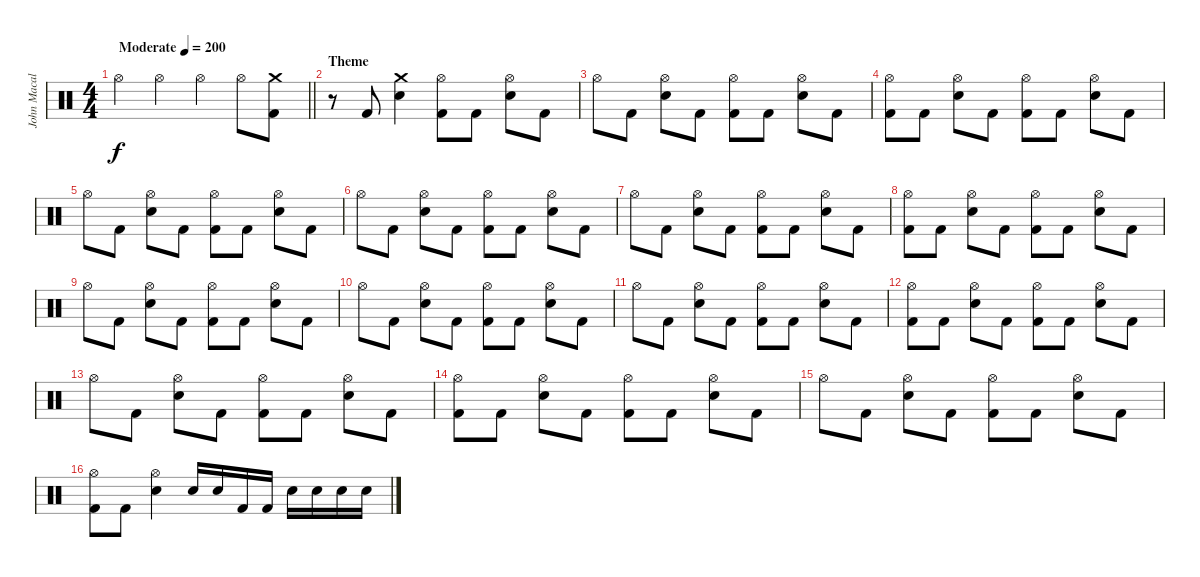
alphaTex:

\track ("John Macaluso" "John Macal") {instrument percussion}
\staff {score}
\articulation defaults
\ts (4 4)
\tempo (200 "Moderate")
\clef neutral
\barLineRight lightlight
\ks c "Hi-Hat (open)".4{dy f} "Hi-Hat (open)".4 "Hi-Hat (open)".4 "Hi-Hat (open)".8
("Crash medium (hit)" "Kick (hit) 2").8 |
\section ("" "Theme")
r.8 "Kick (hit) 2".8 ("Crash medium (hit)" "Snare (hit) 2").4 ("Hi-Hat (open)" "Kick (hit) 2").8 "Kick (hit) 2".8 ("Hi-Hat (open)" "Snare (hit) 2").8 "Kick (hit) 2".8 |
"Hi-Hat (open)".8 "Kick (hit) 2".8 ("Hi-Hat (open)" "Snare (hit) 2").8 "Kick (hit) 2".8 ("Hi-Hat (open)" "Kick (hit) 2").8 "Kick (hit) 2".8 ("Hi-Hat (open)" "Snare (hit) 2").8 "Kick (hit) 2".8 |
("Hi-Hat (open)" "Kick (hit) 2").8 "Kick (hit) 2".8 ("Hi-Hat (open)" "Snare (hit) 2").8 "Kick (hit) 2".8 ("Hi-Hat (open)" "Kick (hit) 2").8 "Kick (hit) 2".8 ("Hi-Hat (open)" "Snare (hit) 2").8 "Kick (hit) 2".8 |
"Hi-Hat (open)".8 "Kick (hit) 2".8 ("Hi-Hat (open)" "Snare (hit) 2").8 "Kick (hit) 2".8 ("Hi-Hat (open)" "Kick (hit) 2").8 "Kick (hit) 2".8 ("Hi-Hat (open)" "Snare (hit) 2").8 "Kick (hit) 2".8 |
"Hi-Hat (open)".8 "Kick (hit) 2".8 ("Hi-Hat (open)" "Snare (hit) 2").8 "Kick (hit) 2".8 ("Hi-Hat (open)" "Kick (hit) 2").8 "Kick (hit) 2".8 ("Hi-Hat (open)" "Snare (hit) 2").8 "Kick (hit) 2".8 |
"Hi-Hat (open)".8 "Kick (hit) 2".8 ("Hi-Hat (open)" "Snare (hit) 2").8 "Kick (hit) 2".8 ("Hi-Hat (open)" "Kick (hit) 2").8 "Kick (hit) 2".8 ("Hi-Hat (open)" "Snare (hit) 2").8 "Kick (hit) 2".8 |
("Hi-Hat (open)" "Kick (hit) 2").8 "Kick (hit) 2".8 ("Hi-Hat (open)" "Snare (hit) 2").8 "Kick (hit) 2".8 ("Hi-Hat (open)" "Kick (hit) 2").8 "Kick (hit) 2".8 ("Hi-Hat (open)" "Snare (hit) 2").8 "Kick (hit) 2".8 |
"Hi-Hat (open)".8 "Kick (hit) 2".8 ("Hi-Hat (open)" "Snare (hit) 2").8 "Kick (hit) 2".8 ("Hi-Hat (open)" "Kick (hit) 2").8 "Kick (hit) 2".8 ("Hi-Hat (open)" "Snare (hit) 2").8 "Kick (hit) 2".8 |
"Hi-Hat (open)".8 "Kick (hit) 2".8 ("Hi-Hat (open)" "Snare (hit) 2").8 "Kick (hit) 2".8 ("Hi-Hat (open)" "Kick (hit) 2").8 "Kick (hit) 2".8 ("Hi-Hat (open)" "Snare (hit) 2").8 "Kick (hit) 2".8 |
"Hi-Hat (open)".8 "Kick (hit) 2".8 ("Hi-Hat (open)" "Snare (hit) 2").8 "Kick (hit) 2".8 ("Hi-Hat (open)" "Kick (hit) 2").8 "Kick (hit) 2".8 ("Hi-Hat (open)" "Snare (hit) 2").8 "Kick (hit) 2".8 |
("Hi-Hat (open)" "Kick (hit) 2").8 "Kick (hit) 2".8 ("Hi-Hat (open)" "Snare (hit) 2").8 "Kick (hit) 2".8 ("Hi-Hat (open)" "Kick (hit) 2").8 "Kick (hit) 2".8 ("Hi-Hat (open)" "Snare (hit) 2").8 "Kick (hit) 2".8 |
"Hi-Hat (open)".8 "Kick (hit) 2".8 ("Hi-Hat (open)" "Snare (hit) 2").8 "Kick (hit) 2".8 ("Hi-Hat (open)" "Kick (hit) 2").8 "Kick (hit) 2".8 ("Hi-Hat (open)" "Snare (hit) 2").8 "Kick (hit) 2".8 |
("Hi-Hat (open)" "Kick (hit) 2").8 "Kick (hit) 2".8 ("Hi-Hat (open)" "Snare (hit) 2").8 "Kick (hit) 2".8 ("Hi-Hat (open)" "Kick (hit) 2").8 "Kick (hit) 2".8 ("Hi-Hat (open)" "Snare (hit) 2").8 "Kick (hit) 2".8 |
"Hi-Hat (open)".8 "Kick (hit) 2".8 ("Hi-Hat (open)" "Snare (hit) 2").8 "Kick (hit) 2".8 ("Hi-Hat (open)" "Kick (hit) 2").8 "Kick (hit) 2".8 ("Hi-Hat (open)" "Snare (hit) 2").8 "Kick (hit) 2".8 |
("Hi-Hat (open)" "Kick (hit) 2").8 "Kick (hit) 2".8 ("Hi-Hat (open)" "Snare (hit) 2").4 "Snare (hit) 2".16 "Snare (hit) 2".16 "Kick (hit) 2".16 "Kick (hit) 2".16 "Snare (hit) 2".16 "Snare (hit) 2".16 "Snare (hit) 2".16 "Snare (hit) 2".16
